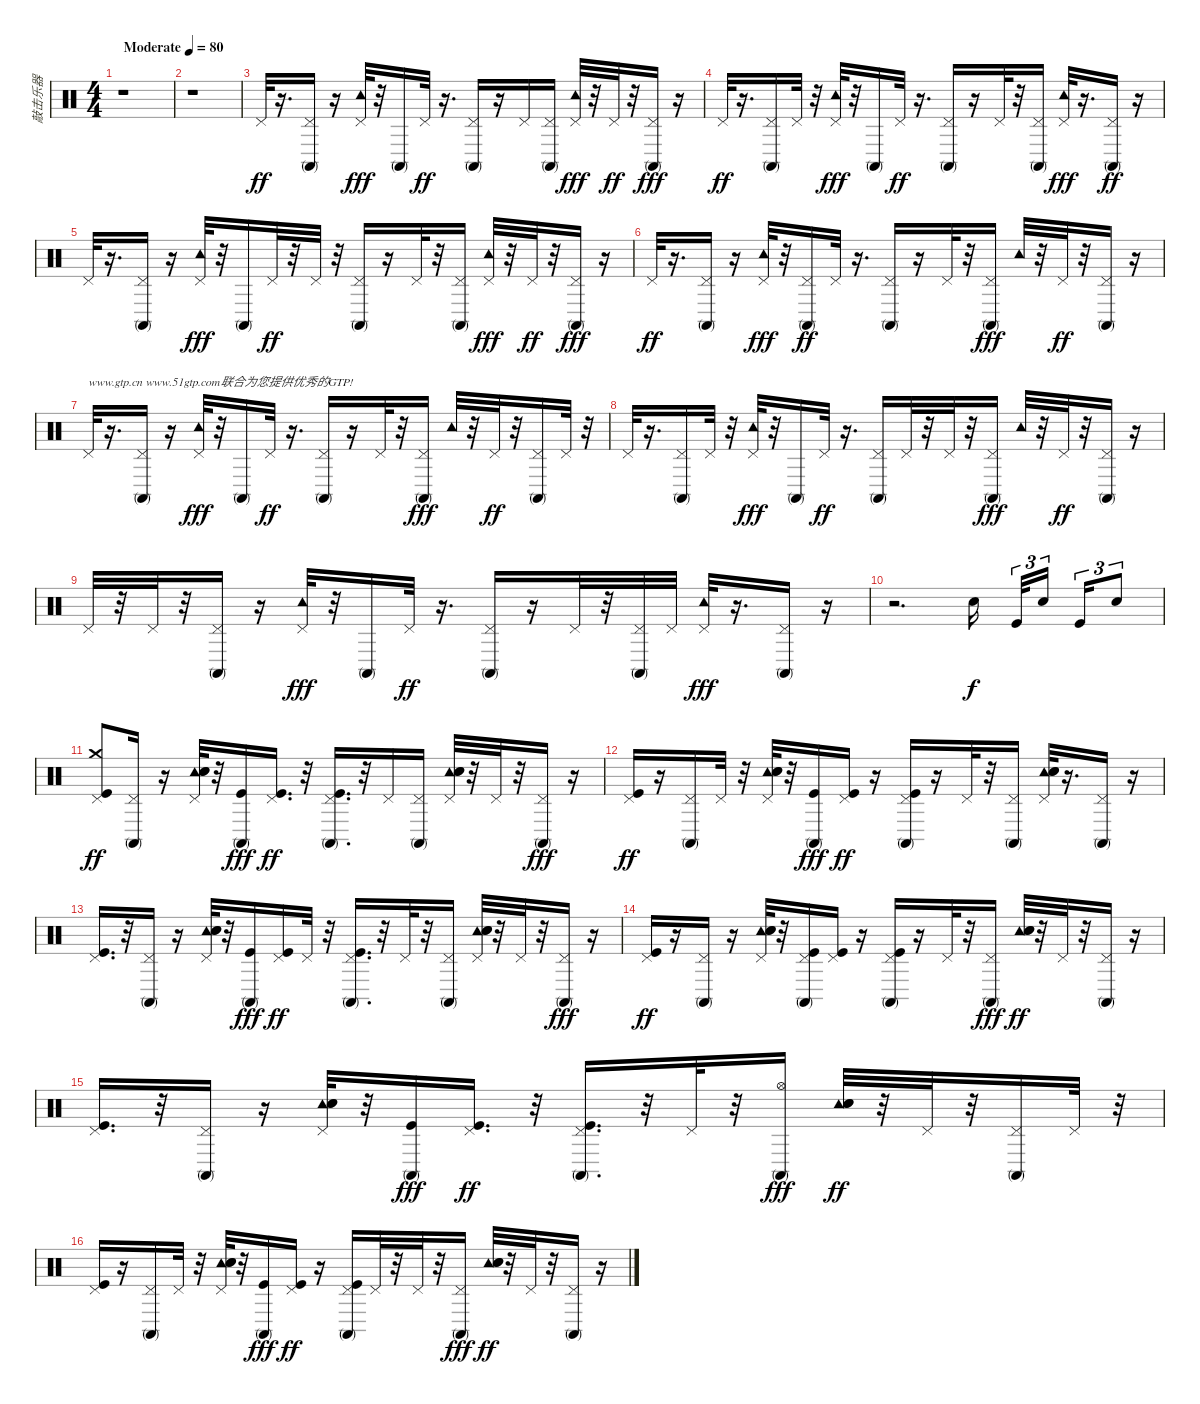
\track ("敲击乐器" "敲击乐器") {instrument percussion}
\staff {score}
\articulation defaults
\ts (4 4)
\tempo (80 "Moderate")
\clef neutral
\ks c
r.1{dy ff} |
r.1 |
"Pedal Hi-Hat (hit)".32 r.16{d} ("Conga high (mute)" "Pedal Hi-Hat (hit)").16 r.16 ("Pedal Hi-Hat (hit)" "Tambourine (hit)").32{dy fff} r.32 "Conga high (mute)".16 "Pedal Hi-Hat (hit)".32{dy ff} r.16{d} ("Conga high (mute)" "Pedal Hi-Hat (hit)").16 r.16 "Pedal Hi-Hat (hit)".16 ("Conga high (mute)" "Pedal Hi-Hat (hit)").16 ("Pedal Hi-Hat (hit)" "Tambourine (hit)").32{dy fff} r.32 "Pedal Hi-Hat (hit)".32{dy ff} r.32 ("Conga high (mute)" "Pedal Hi-Hat (hit)").16{dy fff} r.16 |
"Pedal Hi-Hat (hit)".32{dy ff} r.16{d} ("Conga high (mute)" "Pedal Hi-Hat (hit)").16 "Pedal Hi-Hat (hit)".32 r.32 ("Pedal Hi-Hat (hit)" "Tambourine (hit)").32{dy fff} r.32 "Conga high (mute)".16 "Pedal Hi-Hat (hit)".32{dy ff} r.16{d} ("Conga high (mute)" "Pedal Hi-Hat (hit)").16 r.16 "Pedal Hi-Hat (hit)".32 r.32 ("Conga high (mute)" "Pedal Hi-Hat (hit)").16 ("Pedal Hi-Hat (hit)" "Tambourine (hit)").32{dy fff} r.16{d} ("Conga high (mute)" "Pedal Hi-Hat (hit)").16{dy ff} r.16 |
"Pedal Hi-Hat (hit)".32 r.16{d} ("Conga high (mute)" "Pedal Hi-Hat (hit)").16 r.16 ("Pedal Hi-Hat (hit)" "Tambourine (hit)").32{dy fff} r.32 "Conga high (mute)".16 "Pedal Hi-Hat (hit)".32{dy ff} r.32 "Pedal Hi-Hat (hit)".32 r.32 ("Conga high (mute)" "Pedal Hi-Hat (hit)").16 r.16 "Pedal Hi-Hat (hit)".32 r.32 ("Conga high (mute)" "Pedal Hi-Hat (hit)").16 ("Pedal Hi-Hat (hit)" "Tambourine (hit)").32{dy fff} r.32 "Pedal Hi-Hat (hit)".32{dy ff} r.32 ("Conga high (mute)" "Pedal Hi-Hat (hit)").16{dy fff} r.16 |
"Pedal Hi-Hat (hit)".32{dy ff} r.16{d} ("Conga high (mute)" "Pedal Hi-Hat (hit)").16 r.16 ("Pedal Hi-Hat (hit)" "Tambourine (hit)").32{dy fff} r.32 ("Conga high (mute)" "Pedal Hi-Hat (hit)").16{dy ff} "Pedal Hi-Hat (hit)".32 r.16{d} ("Conga high (mute)" "Pedal Hi-Hat (hit)").16 r.16 "Pedal Hi-Hat (hit)".32 r.32 ("Conga high (mute)" "Pedal Hi-Hat (hit)").16{dy fff} "Tambourine (hit)".32 r.32 "Pedal Hi-Hat (hit)".32{dy ff} r.32 ("Conga high (mute)" "Pedal Hi-Hat (hit)").16 r.16 |
"Pedal Hi-Hat (hit)".32{txt "www.gtp.cn www.51gtp.com联合为您提供优秀的GTP!"} r.16{d} ("Conga high (mute)" "Pedal Hi-Hat (hit)").16 r.16 ("Pedal Hi-Hat (hit)" "Tambourine (hit)").32{dy fff} r.32 "Conga high (mute)".16 "Pedal Hi-Hat (hit)".32{dy ff} r.16{d} ("Conga high (mute)" "Pedal Hi-Hat (hit)").16 r.16 "Pedal Hi-Hat (hit)".32 r.32 ("Conga high (mute)" "Pedal Hi-Hat (hit)").16{dy fff} "Tambourine (hit)".32 r.32 "Pedal Hi-Hat (hit)".32{dy ff} r.32 ("Conga high (mute)" "Pedal Hi-Hat (hit)").16 "Pedal Hi-Hat (hit)".32 r.32 |
"Pedal Hi-Hat (hit)".32 r.16{d} ("Conga high (mute)" "Pedal Hi-Hat (hit)").16 "Pedal Hi-Hat (hit)".32 r.32 ("Pedal Hi-Hat (hit)" "Tambourine (hit)").32{dy fff} r.32 "Conga high (mute)".16 "Pedal Hi-Hat (hit)".32{dy ff} r.16{d} ("Conga high (mute)" "Pedal Hi-Hat (hit)").16 "Pedal Hi-Hat (hit)".32 r.32 "Pedal Hi-Hat (hit)".32 r.32 ("Conga high (mute)" "Pedal Hi-Hat (hit)").16{dy fff} "Tambourine (hit)".32 r.32 "Pedal Hi-Hat (hit)".32{dy ff} r.32 ("Conga high (mute)" "Pedal Hi-Hat (hit)").16 r.16 |
"Pedal Hi-Hat (hit)".32 r.32 "Pedal Hi-Hat (hit)".32 r.32 ("Conga high (mute)" "Pedal Hi-Hat (hit)").16 r.16 ("Pedal Hi-Hat (hit)" "Tambourine (hit)").32{dy fff} r.32 "Conga high (mute)".16 "Pedal Hi-Hat (hit)".32{dy ff} r.16{d} ("Conga high (mute)" "Pedal Hi-Hat (hit)").16 r.16 "Pedal Hi-Hat (hit)".32 r.32 ("Conga high (mute)" "Pedal Hi-Hat (hit)").32 "Pedal Hi-Hat (hit)".32 ("Pedal Hi-Hat (hit)" "Tambourine (hit)").32{dy fff} r.16{d} ("Conga high (mute)" "Pedal Hi-Hat (hit)").16 r.16 |
r.2{d} "Hand Clap (hit)".16{dy f beam splitsecondary} "Kick (hit)".32{tu (3 2)} "Hand Clap (hit)".16{tu (3 2) beam splitsecondary} "Kick (hit)".16{tu (3 2)} "Hand Clap (hit)".8{tu (3 2)} |
("Kick (hit)" "Crash medium (hit)" "Pedal Hi-Hat (hit)").8{dy ff} ("Conga high (mute)" "Pedal Hi-Hat (hit)").16 r.16 ("Pedal Hi-Hat (hit)" "Tambourine (hit)" "Hand Clap (hit)" "Electric Snare (hit)").32 r.32 ("Conga high (mute)" "Kick (hit)").16{dy fff} ("Kick (hit)" "Pedal Hi-Hat (hit)").16{d dy ff} r.32 ("Conga high (mute)" "Kick (hit)" "Pedal Hi-Hat (hit)").16{d} r.32 "Pedal Hi-Hat (hit)".16 ("Conga high (mute)" "Pedal Hi-Hat (hit)").16 ("Pedal Hi-Hat (hit)" "Tambourine (hit)" "Hand Clap (hit)" "Electric Snare (hit)").32 r.32 "Pedal Hi-Hat (hit)".32 r.32 ("Conga high (mute)" "Pedal Hi-Hat (hit)").16{dy fff} r.16 |
("Kick (hit)" "Pedal Hi-Hat (hit)").16{dy ff} r.16 ("Conga high (mute)" "Pedal Hi-Hat (hit)").16 "Pedal Hi-Hat (hit)".32 r.32 ("Pedal Hi-Hat (hit)" "Tambourine (hit)" "Hand Clap (hit)" "Electric Snare (hit)").32 r.32 ("Conga high (mute)" "Kick (hit)").16{dy fff} ("Kick (hit)" "Pedal Hi-Hat (hit)").16{dy ff} r.16 ("Conga high (mute)" "Kick (hit)" "Pedal Hi-Hat (hit)").16 r.16 "Pedal Hi-Hat (hit)".32 r.32 ("Conga high (mute)" "Pedal Hi-Hat (hit)").16 ("Pedal Hi-Hat (hit)" "Tambourine (hit)" "Hand Clap (hit)" "Electric Snare (hit)").32 r.16{d} ("Conga high (mute)" "Pedal Hi-Hat (hit)").16 r.16 |
("Kick (hit)" "Pedal Hi-Hat (hit)").16{d} r.32 ("Conga high (mute)" "Pedal Hi-Hat (hit)").16 r.16 ("Pedal Hi-Hat (hit)" "Tambourine (hit)" "Hand Clap (hit)" "Electric Snare (hit)").32 r.32 ("Conga high (mute)" "Kick (hit)").16{dy fff} ("Kick (hit)" "Pedal Hi-Hat (hit)").16{dy ff} "Pedal Hi-Hat (hit)".32 r.32 ("Conga high (mute)" "Kick (hit)" "Pedal Hi-Hat (hit)").16{d} r.32 "Pedal Hi-Hat (hit)".32 r.32 ("Conga high (mute)" "Pedal Hi-Hat (hit)").16 ("Pedal Hi-Hat (hit)" "Tambourine (hit)" "Hand Clap (hit)" "Electric Snare (hit)").32 r.32 "Pedal Hi-Hat (hit)".32 r.32 ("Conga high (mute)" "Pedal Hi-Hat (hit)").16{dy fff} r.16 |
("Kick (hit)" "Pedal Hi-Hat (hit)").16{dy ff} r.16 ("Conga high (mute)" "Pedal Hi-Hat (hit)").16 r.16 ("Pedal Hi-Hat (hit)" "Tambourine (hit)" "Hand Clap (hit)" "Electric Snare (hit)").32 r.32 ("Conga high (mute)" "Kick (hit)" "Pedal Hi-Hat (hit)").16 ("Kick (hit)" "Pedal Hi-Hat (hit)").16 r.16 ("Conga high (mute)" "Kick (hit)" "Pedal Hi-Hat (hit)").16 r.16 "Pedal Hi-Hat (hit)".32 r.32 ("Conga high (mute)" "Pedal Hi-Hat (hit)").16{dy fff} ("Tambourine (hit)" "Hand Clap (hit)" "Electric Snare (hit)").32{dy ff} r.32 "Pedal Hi-Hat (hit)".32 r.32 ("Conga high (mute)" "Pedal Hi-Hat (hit)").16 r.16 |
("Kick (hit)" "Pedal Hi-Hat (hit)").16{d} r.32 ("Conga high (mute)" "Pedal Hi-Hat (hit)").16 r.16 ("Pedal Hi-Hat (hit)" "Tambourine (hit)" "Hand Clap (hit)" "Electric Snare (hit)").32 r.32 ("Conga high (mute)" "Kick (hit)").16{dy fff} ("Kick (hit)" "Pedal Hi-Hat (hit)").16{d dy ff} r.32 ("Conga high (mute)" "Kick (hit)" "Pedal Hi-Hat (hit)").16{d} r.32 "Pedal Hi-Hat (hit)".32 r.32 ("Conga high (mute)" "Hi-Hat (open)").16{dy fff} ("Tambourine (hit)" "Hand Clap (hit)" "Electric Snare (hit)").32{dy ff} r.32 "Pedal Hi-Hat (hit)".32 r.32 ("Conga high (mute)" "Pedal Hi-Hat (hit)").16 "Pedal Hi-Hat (hit)".32 r.32 |
("Kick (hit)" "Pedal Hi-Hat (hit)").16 r.16 ("Conga high (mute)" "Pedal Hi-Hat (hit)").16 "Pedal Hi-Hat (hit)".32 r.32 ("Pedal Hi-Hat (hit)" "Tambourine (hit)" "Hand Clap (hit)" "Electric Snare (hit)").32 r.32 ("Conga high (mute)" "Kick (hit)").16{dy fff} ("Kick (hit)" "Pedal Hi-Hat (hit)").16{dy ff} r.16 ("Conga high (mute)" "Kick (hit)" "Pedal Hi-Hat (hit)").16 "Pedal Hi-Hat (hit)".32 r.32 "Pedal Hi-Hat (hit)".32 r.32 ("Conga high (mute)" "Pedal Hi-Hat (hit)").16{dy fff} ("Tambourine (hit)" "Hand Clap (hit)" "Electric Snare (hit)").32{dy ff} r.32 "Pedal Hi-Hat (hit)".32 r.32 ("Conga high (mute)" "Pedal Hi-Hat (hit)").16 r.16
